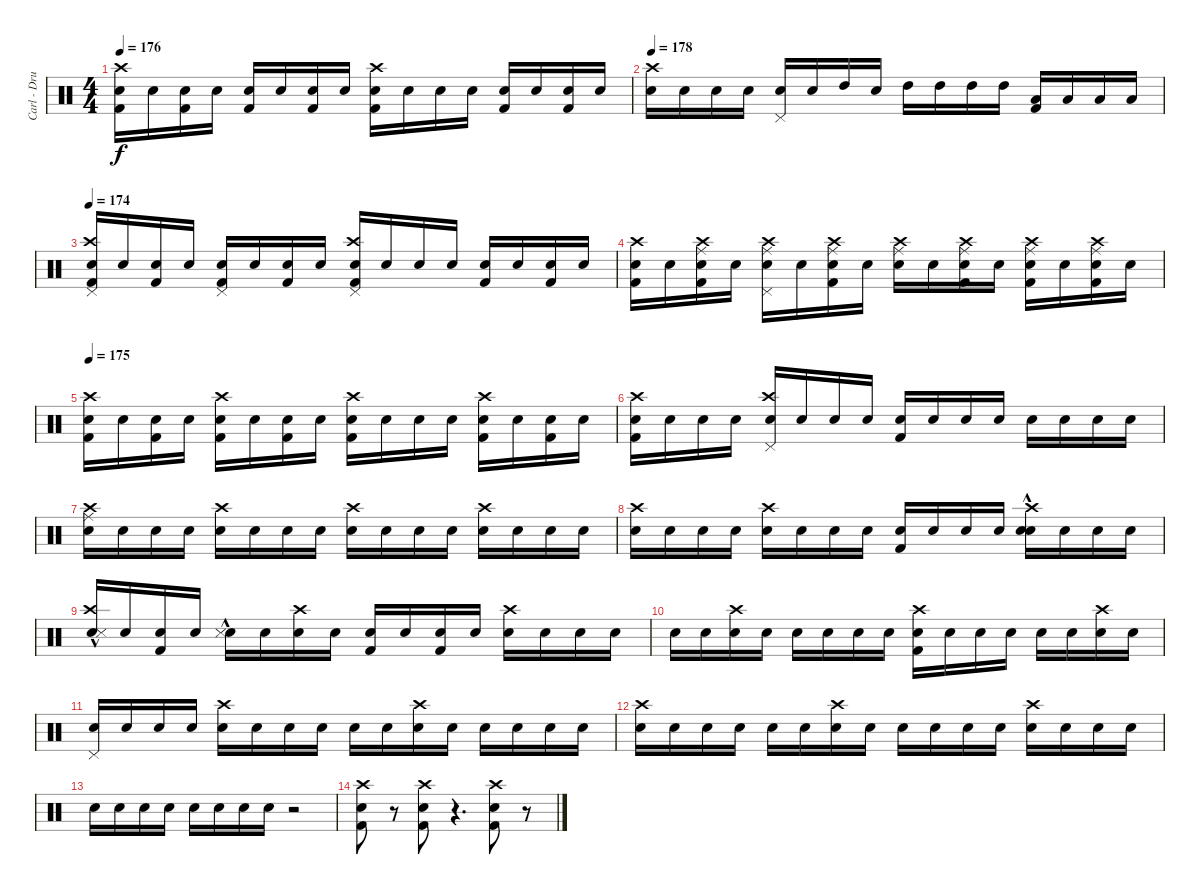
\track ("Carl - Drums" "Carl - Dru") {instrument percussion}
\staff {score}
\articulation defaults
\ts (4 4)
\tempo 176
\clef neutral
\ks c
("Electric Snare (hit)" "Kick (hit) 2" "Crash high (hit)").16{dy f} "Electric Snare (hit)".16 ("Electric Snare (hit)" "Kick (hit) 2").16 "Electric Snare (hit)".16 ("Electric Snare (hit)" "Kick (hit) 2").16 "Electric Snare (hit)".16 ("Electric Snare (hit)" "Kick (hit) 2").16 "Electric Snare (hit)".16 ("Electric Snare (hit)" "Kick (hit) 2" "Crash high (hit)").16 "Electric Snare (hit)".16 "Electric Snare (hit)".16 "Electric Snare (hit)".16 ("Electric Snare (hit)" "Kick (hit) 2").16 "Electric Snare (hit)".16 ("Electric Snare (hit)" "Kick (hit) 2").16 "Electric Snare (hit)".16 |
\tempo 178
("Electric Snare (hit)" "Crash high (hit)").16 "Electric Snare (hit)".16 "Electric Snare (hit)".16 "Electric Snare (hit)".16 ("Electric Snare (hit)" "Pedal Hi-Hat (hit)").16 "Electric Snare (hit)".16 "High Tom (hit)".16 "Electric Snare (hit)".16 "High Tom (hit)".16 "High Tom (hit)".16 "High Tom (hit)".16 "High Tom (hit)".16 ("Low Tom (hit)" "Kick (hit) 2").16 "Low Tom (hit)".16 "Low Tom (hit)".16 "Low Tom (hit)".16 |
\tempo 174
("Electric Snare (hit)" "Pedal Hi-Hat (hit)" "Kick (hit) 2" "Crash high (hit)").16 "Electric Snare (hit)".16 ("Electric Snare (hit)" "Kick (hit) 2").16 "Electric Snare (hit)".16 ("Electric Snare (hit)" "Pedal Hi-Hat (hit)" "Kick (hit) 2").16 "Electric Snare (hit)".16 ("Electric Snare (hit)" "Kick (hit) 2").16 "Electric Snare (hit)".16 ("Electric Snare (hit)" "Pedal Hi-Hat (hit)" "Kick (hit) 2" "Crash high (hit)").16 "Electric Snare (hit)".16 "Electric Snare (hit)".16 "Electric Snare (hit)".16 ("Electric Snare (hit)" "Kick (hit) 2").16 "Electric Snare (hit)".16 ("Electric Snare (hit)" "Kick (hit) 2").16 "Electric Snare (hit)".16 |
("Electric Snare (hit)" "Kick (hit) 2" "Crash high (hit)").16 "Electric Snare (hit)".16 ("Electric Snare (hit)" "Ride (middle)" "Kick (hit) 2" "Crash high (hit)").16 "Electric Snare (hit)".16 ("Electric Snare (hit)" "Ride (middle)" "Pedal Hi-Hat (hit)" "Crash high (hit)").16 "Electric Snare (hit)".16 ("Electric Snare (hit)" "Ride (middle)" "Kick (hit) 2" "Crash high (hit)").16 "Electric Snare (hit)".16 ("Electric Snare (hit)" "Ride (middle)" "Crash high (hit)").16 "Electric Snare (hit)".16 ("Electric Snare (hit)" "Ride (middle)" "Kick (hit) 2" "Crash high (hit)").16 "Electric Snare (hit)".16 ("Electric Snare (hit)" "Ride (middle)" "Kick (hit) 2" "Crash high (hit)").16 "Electric Snare (hit)".16 ("Electric Snare (hit)" "Ride (middle)" "Kick (hit) 2" "Crash high (hit)").16 "Electric Snare (hit)".16 |
\tempo 175
("Electric Snare (hit)" "Kick (hit) 2" "Crash high (hit)").16 "Electric Snare (hit)".16 ("Electric Snare (hit)" "Kick (hit) 2").16 "Electric Snare (hit)".16 ("Electric Snare (hit)" "Kick (hit) 2" "Crash high (hit)").16 "Electric Snare (hit)".16 ("Electric Snare (hit)" "Kick (hit) 2").16 "Electric Snare (hit)".16 ("Electric Snare (hit)" "Kick (hit) 2" "Crash high (hit)").16 "Electric Snare (hit)".16 "Electric Snare (hit)".16 "Electric Snare (hit)".16 ("Electric Snare (hit)" "Kick (hit) 2" "Crash high (hit)").16 "Electric Snare (hit)".16 ("Electric Snare (hit)" "Kick (hit) 2").16 "Electric Snare (hit)".16 |
("Electric Snare (hit)" "Kick (hit) 2" "Crash high (hit)").16 "Electric Snare (hit)".16 "Electric Snare (hit)".16 "Electric Snare (hit)".16 ("Electric Snare (hit)" "Pedal Hi-Hat (hit)" "Crash high (hit)").16 "Electric Snare (hit)".16 "Electric Snare (hit)".16 "Electric Snare (hit)".16 ("Electric Snare (hit)" "Kick (hit) 2").16 "Electric Snare (hit)".16 "Electric Snare (hit)".16 "Electric Snare (hit)".16 "Electric Snare (hit)".16 "Electric Snare (hit)".16 "Electric Snare (hit)".16 "Electric Snare (hit)".16 |
("Electric Snare (hit)" "Ride (middle)" "Crash high (hit)").16 "Electric Snare (hit)".16 "Electric Snare (hit)".16 "Electric Snare (hit)".16 ("Electric Snare (hit)" "Crash high (hit)").16 "Electric Snare (hit)".16 "Electric Snare (hit)".16 "Electric Snare (hit)".16 ("Electric Snare (hit)" "Crash high (hit)").16 "Electric Snare (hit)".16 "Electric Snare (hit)".16 "Electric Snare (hit)".16 ("Electric Snare (hit)" "Crash high (hit)").16 "Electric Snare (hit)".16 "Electric Snare (hit)".16 "Electric Snare (hit)".16 |
("Electric Snare (hit)" "Crash high (hit)").16 "Electric Snare (hit)".16 "Electric Snare (hit)".16 "Electric Snare (hit)".16 ("Electric Snare (hit)" "Crash high (hit)").16 "Electric Snare (hit)".16 "Electric Snare (hit)".16 "Electric Snare (hit)".16 ("Electric Snare (hit)" "Kick (hit) 2").16 "Electric Snare (hit)".16 "Electric Snare (hit)".16 "Electric Snare (hit)".16 ("Electric Snare (hit)" "Snare (hit) 2"{hac} "Crash high (hit)").16 "Electric Snare (hit)".16 "Electric Snare (hit)".16 "Electric Snare (hit)".16 |
("Electric Snare (hit)" "Snare (side stick) 3"{hac} "Crash high (hit)").16 "Electric Snare (hit)".16 ("Electric Snare (hit)" "Kick (hit) 2").16 "Electric Snare (hit)".16 ("Electric Snare (hit)" "Snare (side stick) 3"{hac}).16 "Electric Snare (hit)".16 ("Electric Snare (hit)" "Crash high (hit)").16 "Electric Snare (hit)".16 ("Electric Snare (hit)" "Kick (hit) 2").16 "Electric Snare (hit)".16 ("Electric Snare (hit)" "Kick (hit) 2").16 "Electric Snare (hit)".16 ("Electric Snare (hit)" "Crash high (hit)").16 "Electric Snare (hit)".16 "Electric Snare (hit)".16 "Electric Snare (hit)".16 |
"Electric Snare (hit)".16 "Electric Snare (hit)".16 ("Electric Snare (hit)" "Crash high (hit)").16 "Electric Snare (hit)".16 "Electric Snare (hit)".16 "Electric Snare (hit)".16 "Electric Snare (hit)".16 "Electric Snare (hit)".16 ("Electric Snare (hit)" "Kick (hit) 2" "Crash high (hit)").16 "Electric Snare (hit)".16 "Electric Snare (hit)".16 "Electric Snare (hit)".16 "Electric Snare (hit)".16 "Electric Snare (hit)".16 ("Electric Snare (hit)" "Crash high (hit)").16 "Electric Snare (hit)".16 |
("Electric Snare (hit)" "Pedal Hi-Hat (hit)").16 "Electric Snare (hit)".16 "Electric Snare (hit)".16 "Electric Snare (hit)".16 ("Electric Snare (hit)" "Crash high (hit)").16 "Electric Snare (hit)".16 "Electric Snare (hit)".16 "Electric Snare (hit)".16 "Electric Snare (hit)".16 "Electric Snare (hit)".16 ("Electric Snare (hit)" "Crash high (hit)").16 "Electric Snare (hit)".16 "Electric Snare (hit)".16 "Electric Snare (hit)".16 "Electric Snare (hit)".16 "Electric Snare (hit)".16 |
("Electric Snare (hit)" "Crash high (hit)").16 "Electric Snare (hit)".16 "Electric Snare (hit)".16 "Electric Snare (hit)".16 "Electric Snare (hit)".16 "Electric Snare (hit)".16 ("Electric Snare (hit)" "Crash high (hit)").16 "Electric Snare (hit)".16 "Electric Snare (hit)".16 "Electric Snare (hit)".16 "Electric Snare (hit)".16 "Electric Snare (hit)".16 ("Electric Snare (hit)" "Crash high (hit)").16 "Electric Snare (hit)".16 "Electric Snare (hit)".16 "Electric Snare (hit)".16 |
"Electric Snare (hit)".16 "Electric Snare (hit)".16 "Electric Snare (hit)".16 "Electric Snare (hit)".16 "Electric Snare (hit)".16 "Electric Snare (hit)".16 "Electric Snare (hit)".16 "Electric Snare (hit)".16 r.2 |
("Electric Snare (hit)" "Kick (hit) 2" "Crash high (hit)").8 r.8 ("Electric Snare (hit)" "Kick (hit) 2" "Crash high (hit)").8 r.4{d} ("Electric Snare (hit)" "Kick (hit) 2" "Crash high (hit)").8 r.8
